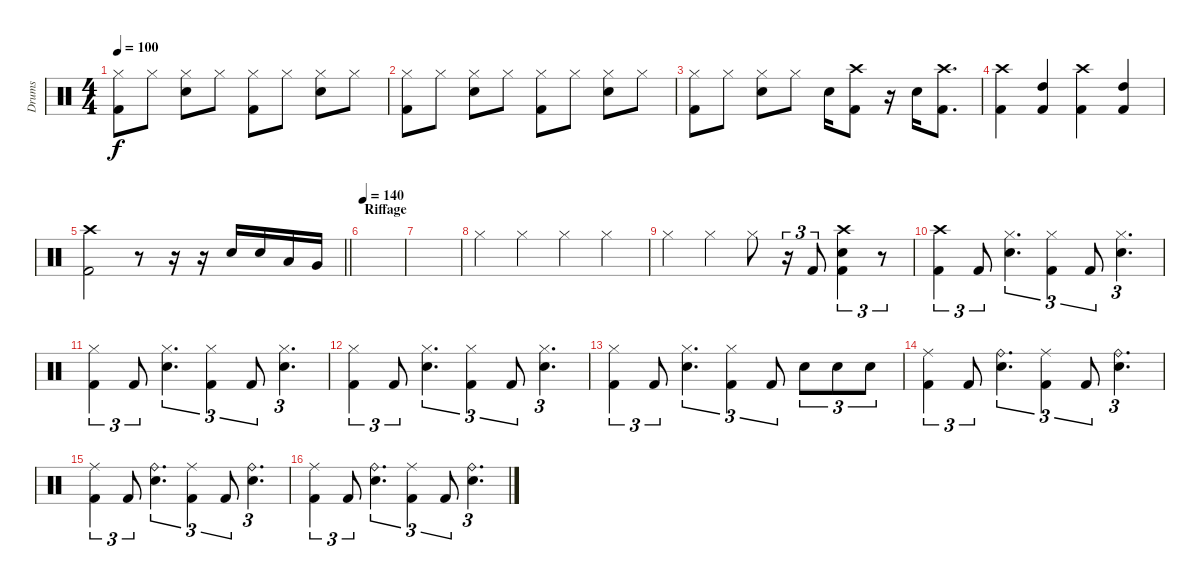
\track ("Drums" "Drums") {instrument percussion}
\staff {score}
\articulation defaults
\ts (4 4)
\tempo 100
\clef neutral
\ks c
("Hi-Hat (closed)" "Kick (hit) 2").8{dy f} "Hi-Hat (closed)".8 ("Hi-Hat (closed)" "Snare (hit) 2").8 "Hi-Hat (closed)".8 ("Hi-Hat (closed)" "Kick (hit) 2").8 "Hi-Hat (closed)".8 ("Hi-Hat (closed)" "Snare (hit) 2").8 "Hi-Hat (closed)".8 |
("Hi-Hat (closed)" "Kick (hit) 2").8 "Hi-Hat (closed)".8 ("Hi-Hat (closed)" "Snare (hit) 2").8 "Hi-Hat (closed)".8 ("Hi-Hat (closed)" "Kick (hit) 2").8 "Hi-Hat (closed)".8 ("Hi-Hat (closed)" "Snare (hit) 2").8 "Hi-Hat (closed)".8 |
("Hi-Hat (closed)" "Kick (hit) 2").8 "Hi-Hat (closed)".8 ("Hi-Hat (closed)" "Snare (hit) 2").8 "Hi-Hat (closed)".8 "Snare (hit) 2".16 ("Crash high (hit)" "Kick (hit) 2").8 r.16 "Snare (hit) 2".16 ("Crash high (hit)" "Kick (hit) 2").8{d} |
("Crash high (hit)" "Kick (hit) 2").4 ("Kick (hit) 2" "High Tom (hit)").4 ("Crash high (hit)" "Kick (hit) 2").4 ("Kick (hit) 2" "High Tom (hit)").4 |
\barLineRight lightlight
("Crash high (hit)" "Kick (hit) 2").2 r.8 r.16 r.16 "Snare (hit) 2".16 "Snare (hit) 2".16 "Low Tom (hit)".16 "Very Low Tom (hit)".16 |
\section ("" "Riffage")
\tempo 140
|
|
"Hi-Hat (closed)".4 "Hi-Hat (closed)".4 "Hi-Hat (closed)".4 "Hi-Hat (closed)".4 |
"Hi-Hat (closed)".4 "Hi-Hat (closed)".4 "Hi-Hat (closed)".8 r.16{tu (3 2)} "Kick (hit) 2".8{tu (3 2)} ("Snare (hit) 2" "Crash high (hit)" "Kick (hit) 2").4{tu (3 2)} r.8{tu (3 2)} |
("Crash high (hit)" "Kick (hit) 2").4{tu (3 2)} "Kick (hit) 2".8{tu (3 2)} ("Hi-Hat (closed)" "Snare (hit) 2").4{d tu (3 2)} ("Hi-Hat (closed)" "Kick (hit) 2").4{tu (3 2)} "Kick (hit) 2".8{tu (3 2)} ("Hi-Hat (closed)" "Snare (hit) 2").4{d tu (3 2)} |
("Hi-Hat (closed)" "Kick (hit) 2").4{tu (3 2)} "Kick (hit) 2".8{tu (3 2)} ("Hi-Hat (closed)" "Snare (hit) 2").4{d tu (3 2)} ("Hi-Hat (closed)" "Kick (hit) 2").4{tu (3 2)} "Kick (hit) 2".8{tu (3 2)} ("Hi-Hat (closed)" "Snare (hit) 2").4{d tu (3 2)} |
("Hi-Hat (closed)" "Kick (hit) 2").4{tu (3 2)} "Kick (hit) 2".8{tu (3 2)} ("Hi-Hat (closed)" "Snare (hit) 2").4{d tu (3 2)} ("Hi-Hat (closed)" "Kick (hit) 2").4{tu (3 2)} "Kick (hit) 2".8{tu (3 2)} ("Hi-Hat (closed)" "Snare (hit) 2").4{d tu (3 2)} |
("Hi-Hat (closed)" "Kick (hit) 2").4{tu (3 2)} "Kick (hit) 2".8{tu (3 2)} ("Hi-Hat (closed)" "Snare (hit) 2").4{d tu (3 2)} ("Hi-Hat (closed)" "Kick (hit) 2").4{tu (3 2)} "Kick (hit) 2".8{tu (3 2)} "Snare (hit) 2".8{tu (3 2)} "Snare (hit) 2".8{tu (3 2)} "Snare (hit) 2".8{tu (3 2)} |
("Ride (middle)" "Kick (hit) 2").4{tu (3 2)} "Kick (hit) 2".8{tu (3 2)} ("Ride (bell)" "Snare (hit) 2").4{d tu (3 2)} ("Ride (middle)" "Kick (hit) 2").4{tu (3 2)} "Kick (hit) 2".8{tu (3 2)} ("Ride (bell)" "Snare (hit) 2").4{d tu (3 2)} |
("Ride (middle)" "Kick (hit) 2").4{tu (3 2)} "Kick (hit) 2".8{tu (3 2)} ("Ride (bell)" "Snare (hit) 2").4{d tu (3 2)} ("Ride (middle)" "Kick (hit) 2").4{tu (3 2)} "Kick (hit) 2".8{tu (3 2)} ("Ride (bell)" "Snare (hit) 2").4{d tu (3 2)} |
("Ride (middle)" "Kick (hit) 2").4{tu (3 2)} "Kick (hit) 2".8{tu (3 2)} ("Ride (bell)" "Snare (hit) 2").4{d tu (3 2)} ("Ride (middle)" "Kick (hit) 2").4{tu (3 2)} "Kick (hit) 2".8{tu (3 2)} ("Ride (bell)" "Snare (hit) 2").4{d tu (3 2)}
